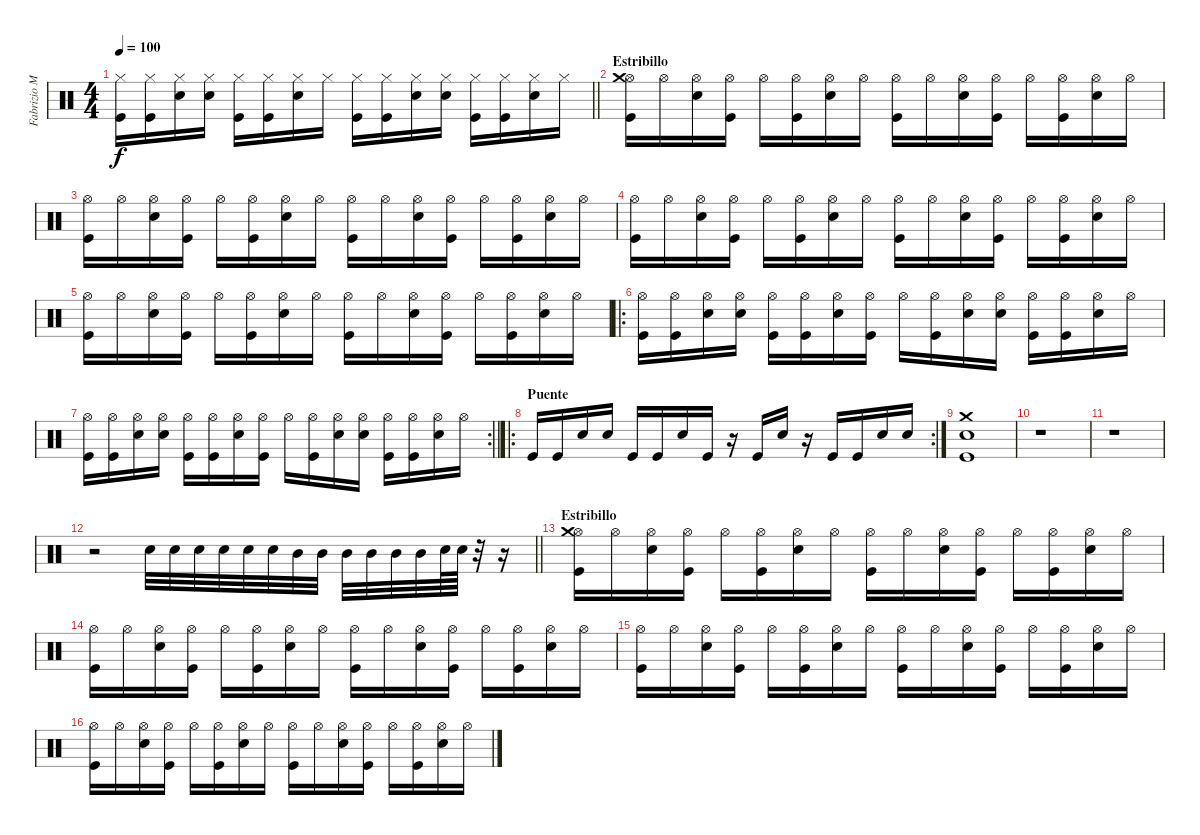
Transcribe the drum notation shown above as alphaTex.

\track ("Fabrizio Moretti" "Fabrizio M") {instrument percussion}
\staff {score}
\articulation defaults
\ts (4 4)
\tempo 100
\clef neutral
\barLineRight lightlight
\ks c
("Hi-Hat (closed)" "Kick (hit)").16{dy f} ("Hi-Hat (closed)" "Kick (hit)").16 ("Hi-Hat (closed)" "Snare (hit) 2").16 ("Hi-Hat (closed)" "Snare (hit) 2").16 ("Hi-Hat (closed)" "Kick (hit)").16 ("Hi-Hat (closed)" "Kick (hit)").16 ("Hi-Hat (closed)" "Snare (hit) 2").16 "Hi-Hat (closed)".16 ("Hi-Hat (closed)" "Kick (hit)").16 ("Hi-Hat (closed)" "Kick (hit)").16 ("Hi-Hat (closed)" "Snare (hit) 2").16 ("Hi-Hat (closed)" "Snare (hit) 2").16 ("Hi-Hat (closed)" "Kick (hit)").16 ("Hi-Hat (closed)" "Kick (hit)").16 ("Hi-Hat (closed)" "Snare (hit) 2").16 "Hi-Hat (closed)".16 |
\section ("" "Estribillo")
("Hi-Hat (open)" "Crash medium (hit)" "Kick (hit)").16 "Hi-Hat (open)".16 ("Hi-Hat (open)" "Snare (hit) 2").16 ("Hi-Hat (open)" "Kick (hit)").16 "Hi-Hat (open)".16 ("Hi-Hat (open)" "Kick (hit)").16 ("Hi-Hat (open)" "Snare (hit) 2").16 "Hi-Hat (open)".16 ("Hi-Hat (open)" "Kick (hit)").16 "Hi-Hat (open)".16 ("Hi-Hat (open)" "Snare (hit) 2").16 ("Hi-Hat (open)" "Kick (hit)").16 "Hi-Hat (open)".16 ("Hi-Hat (open)" "Kick (hit)").16 ("Hi-Hat (open)" "Snare (hit) 2").16 "Hi-Hat (open)".16 |
("Hi-Hat (open)" "Kick (hit)").16 "Hi-Hat (open)".16 ("Hi-Hat (open)" "Snare (hit) 2").16 ("Hi-Hat (open)" "Kick (hit)").16 "Hi-Hat (open)".16 ("Hi-Hat (open)" "Kick (hit)").16 ("Hi-Hat (open)" "Snare (hit) 2").16 "Hi-Hat (open)".16 ("Hi-Hat (open)" "Kick (hit)").16 "Hi-Hat (open)".16 ("Hi-Hat (open)" "Snare (hit) 2").16 ("Hi-Hat (open)" "Kick (hit)").16 "Hi-Hat (open)".16 ("Hi-Hat (open)" "Kick (hit)").16 ("Hi-Hat (open)" "Snare (hit) 2").16 "Hi-Hat (open)".16 |
("Hi-Hat (open)" "Kick (hit)").16 "Hi-Hat (open)".16 ("Hi-Hat (open)" "Snare (hit) 2").16 ("Hi-Hat (open)" "Kick (hit)").16 "Hi-Hat (open)".16 ("Hi-Hat (open)" "Kick (hit)").16 ("Hi-Hat (open)" "Snare (hit) 2").16 "Hi-Hat (open)".16 ("Hi-Hat (open)" "Kick (hit)").16 "Hi-Hat (open)".16 ("Hi-Hat (open)" "Snare (hit) 2").16 ("Hi-Hat (open)" "Kick (hit)").16 "Hi-Hat (open)".16 ("Hi-Hat (open)" "Kick (hit)").16 ("Hi-Hat (open)" "Snare (hit) 2").16 "Hi-Hat (open)".16 |
("Hi-Hat (open)" "Kick (hit)").16 "Hi-Hat (open)".16 ("Hi-Hat (open)" "Snare (hit) 2").16 ("Hi-Hat (open)" "Kick (hit)").16 "Hi-Hat (open)".16 ("Hi-Hat (open)" "Kick (hit)").16 ("Hi-Hat (open)" "Snare (hit) 2").16 "Hi-Hat (open)".16 ("Hi-Hat (open)" "Kick (hit)").16 "Hi-Hat (open)".16 ("Hi-Hat (open)" "Snare (hit) 2").16 ("Hi-Hat (open)" "Kick (hit)").16 "Hi-Hat (open)".16 ("Hi-Hat (open)" "Kick (hit)").16 ("Hi-Hat (open)" "Snare (hit) 2").16 "Hi-Hat (open)".16 |
\ro
("Hi-Hat (open)" "Kick (hit)").16 ("Hi-Hat (open)" "Kick (hit)").16 ("Hi-Hat (open)" "Snare (hit) 2").16 ("Hi-Hat (open)" "Snare (hit) 2").16 ("Hi-Hat (open)" "Kick (hit)").16 ("Hi-Hat (open)" "Kick (hit)").16 ("Hi-Hat (open)" "Snare (hit) 2").16 ("Hi-Hat (open)" "Kick (hit)").16 "Hi-Hat (open)".16 ("Hi-Hat (open)" "Kick (hit)").16 ("Hi-Hat (open)" "Snare (hit) 2").16 ("Hi-Hat (open)" "Snare (hit) 2").16 ("Hi-Hat (open)" "Kick (hit)").16 ("Hi-Hat (open)" "Kick (hit)").16 ("Hi-Hat (open)" "Snare (hit) 2").16 "Hi-Hat (open)".16 |
\rc 2
\barLineRight lightlight
("Hi-Hat (open)" "Kick (hit)").16 ("Hi-Hat (open)" "Kick (hit)").16 ("Hi-Hat (open)" "Snare (hit) 2").16 ("Hi-Hat (open)" "Snare (hit) 2").16 ("Hi-Hat (open)" "Kick (hit)").16 ("Hi-Hat (open)" "Kick (hit)").16 ("Hi-Hat (open)" "Snare (hit) 2").16 ("Hi-Hat (open)" "Kick (hit)").16 "Hi-Hat (open)".16 ("Hi-Hat (open)" "Kick (hit)").16 ("Hi-Hat (open)" "Snare (hit) 2").16 ("Hi-Hat (open)" "Snare (hit) 2").16 ("Hi-Hat (open)" "Kick (hit)").16 ("Hi-Hat (open)" "Kick (hit)").16 ("Hi-Hat (open)" "Snare (hit) 2").16 "Hi-Hat (open)".16 |
\ro
\rc 2
\section ("" "Puente")
"Kick (hit)".16 "Kick (hit)".16 "Snare (hit) 2".16 "Snare (hit) 2".16 "Kick (hit)".16 "Kick (hit)".16 "Snare (hit) 2".16 "Kick (hit)".16 r.16 "Kick (hit)".16 "Snare (hit) 2".16 r.16 "Kick (hit)".16 "Kick (hit)".16 "Snare (hit) 2".16 "Snare (hit) 2".16 |
("Crash medium (hit)" "Snare (hit) 2" "Kick (hit)").1 |
r.1 |
r.1 |
\barLineRight lightlight
r.2 "Snare (hit) 2".32 "Snare (hit) 2".32 "Snare (hit) 2".32 "Snare (hit) 2".32 "Snare (hit) 2".32 "Snare (hit) 2".32 "Mid Tom (hit)".32 "Mid Tom (hit)".32 "Mid Tom (hit)".32 "Mid Tom (hit)".32 "Mid Tom (hit)".32 "Mid Tom (hit)".32 "Snare (hit) 2".64 "Snare (hit) 2".64 r.32 r.16 |
\section ("" "Estribillo")
("Hi-Hat (open)" "Crash medium (hit)" "Kick (hit)").16 "Hi-Hat (open)".16 ("Hi-Hat (open)" "Snare (hit) 2").16 ("Hi-Hat (open)" "Kick (hit)").16 "Hi-Hat (open)".16 ("Hi-Hat (open)" "Kick (hit)").16 ("Hi-Hat (open)" "Snare (hit) 2").16 "Hi-Hat (open)".16 ("Hi-Hat (open)" "Kick (hit)").16 "Hi-Hat (open)".16 ("Hi-Hat (open)" "Snare (hit) 2").16 ("Hi-Hat (open)" "Kick (hit)").16 "Hi-Hat (open)".16 ("Hi-Hat (open)" "Kick (hit)").16 ("Hi-Hat (open)" "Snare (hit) 2").16 "Hi-Hat (open)".16 |
("Hi-Hat (open)" "Kick (hit)").16 "Hi-Hat (open)".16 ("Hi-Hat (open)" "Snare (hit) 2").16 ("Hi-Hat (open)" "Kick (hit)").16 "Hi-Hat (open)".16 ("Hi-Hat (open)" "Kick (hit)").16 ("Hi-Hat (open)" "Snare (hit) 2").16 "Hi-Hat (open)".16 ("Hi-Hat (open)" "Kick (hit)").16 "Hi-Hat (open)".16 ("Hi-Hat (open)" "Snare (hit) 2").16 ("Hi-Hat (open)" "Kick (hit)").16 "Hi-Hat (open)".16 ("Hi-Hat (open)" "Kick (hit)").16 ("Hi-Hat (open)" "Snare (hit) 2").16 "Hi-Hat (open)".16 |
("Hi-Hat (open)" "Kick (hit)").16 "Hi-Hat (open)".16 ("Hi-Hat (open)" "Snare (hit) 2").16 ("Hi-Hat (open)" "Kick (hit)").16 "Hi-Hat (open)".16 ("Hi-Hat (open)" "Kick (hit)").16 ("Hi-Hat (open)" "Snare (hit) 2").16 "Hi-Hat (open)".16 ("Hi-Hat (open)" "Kick (hit)").16 "Hi-Hat (open)".16 ("Hi-Hat (open)" "Snare (hit) 2").16 ("Hi-Hat (open)" "Kick (hit)").16 "Hi-Hat (open)".16 ("Hi-Hat (open)" "Kick (hit)").16 ("Hi-Hat (open)" "Snare (hit) 2").16 "Hi-Hat (open)".16 |
("Hi-Hat (open)" "Kick (hit)").16 "Hi-Hat (open)".16 ("Hi-Hat (open)" "Snare (hit) 2").16 ("Hi-Hat (open)" "Kick (hit)").16 "Hi-Hat (open)".16 ("Hi-Hat (open)" "Kick (hit)").16 ("Hi-Hat (open)" "Snare (hit) 2").16 "Hi-Hat (open)".16 ("Hi-Hat (open)" "Kick (hit)").16 "Hi-Hat (open)".16 ("Hi-Hat (open)" "Snare (hit) 2").16 ("Hi-Hat (open)" "Kick (hit)").16 "Hi-Hat (open)".16 ("Hi-Hat (open)" "Kick (hit)").16 ("Hi-Hat (open)" "Snare (hit) 2").16 "Hi-Hat (open)".16
